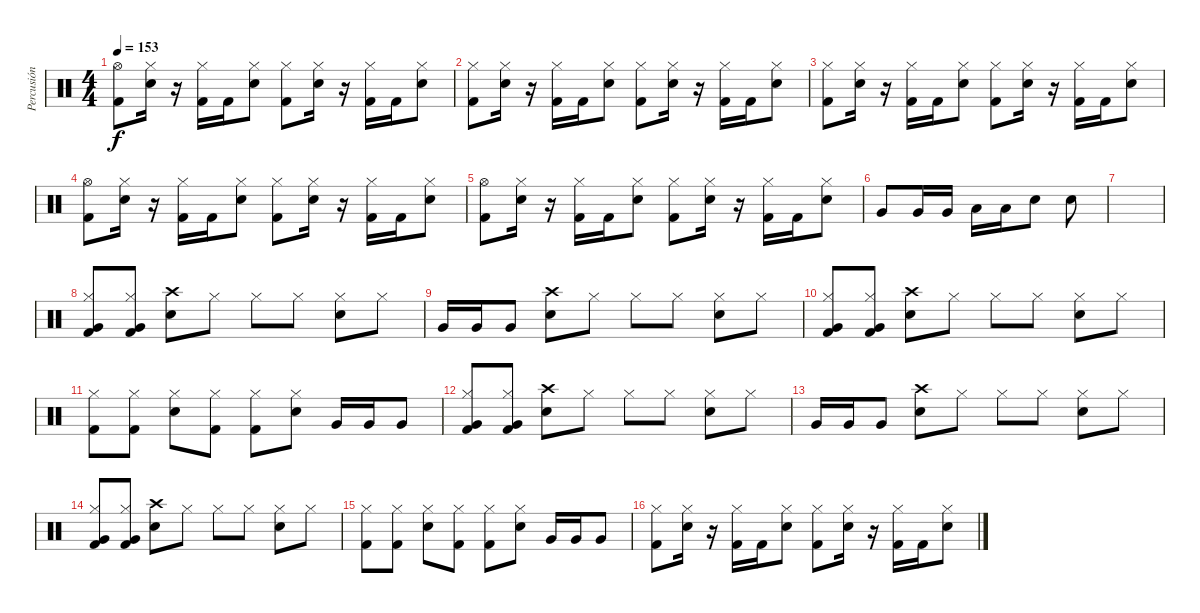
\track ("Percusión" "Percusión") {instrument percussion}
\staff {score}
\articulation defaults
\ts (4 4)
\tempo 153
\clef neutral
\ks c
("Hi-Hat (open)" "Kick (hit) 2").8{dy f} ("Hi-Hat (closed)" "Electric Snare (hit)").16 r.16 ("Hi-Hat (closed)" "Kick (hit) 2").16 "Kick (hit) 2".16 ("Hi-Hat (closed)" "Electric Snare (hit)").8 ("Hi-Hat (closed)" "Kick (hit) 2").8 ("Hi-Hat (closed)" "Electric Snare (hit)").16 r.16 ("Hi-Hat (closed)" "Kick (hit) 2").16 "Kick (hit) 2".16 ("Hi-Hat (closed)" "Electric Snare (hit)").8 |
("Hi-Hat (closed)" "Kick (hit) 2").8 ("Hi-Hat (closed)" "Electric Snare (hit)").16 r.16 ("Hi-Hat (closed)" "Kick (hit) 2").16 "Kick (hit) 2".16 ("Hi-Hat (closed)" "Electric Snare (hit)").8 ("Hi-Hat (closed)" "Kick (hit) 2").8 ("Hi-Hat (closed)" "Electric Snare (hit)").16 r.16 ("Hi-Hat (closed)" "Kick (hit) 2").16 "Kick (hit) 2".16 ("Hi-Hat (closed)" "Electric Snare (hit)").8 |
("Hi-Hat (closed)" "Kick (hit) 2").8 ("Hi-Hat (closed)" "Electric Snare (hit)").16 r.16 ("Hi-Hat (closed)" "Kick (hit) 2").16 "Kick (hit) 2".16 ("Hi-Hat (closed)" "Electric Snare (hit)").8 ("Hi-Hat (closed)" "Kick (hit) 2").8 ("Hi-Hat (closed)" "Electric Snare (hit)").16 r.16 ("Hi-Hat (closed)" "Kick (hit) 2").16 "Kick (hit) 2".16 ("Hi-Hat (closed)" "Electric Snare (hit)").8 |
("Hi-Hat (open)" "Kick (hit) 2").8 ("Hi-Hat (closed)" "Electric Snare (hit)").16 r.16 ("Hi-Hat (closed)" "Kick (hit) 2").16 "Kick (hit) 2".16 ("Hi-Hat (closed)" "Electric Snare (hit)").8 ("Hi-Hat (closed)" "Kick (hit) 2").8 ("Hi-Hat (closed)" "Electric Snare (hit)").16 r.16 ("Hi-Hat (closed)" "Kick (hit) 2").16 "Kick (hit) 2".16 ("Hi-Hat (closed)" "Electric Snare (hit)").8 |
("Hi-Hat (open)" "Kick (hit) 2").8 ("Hi-Hat (closed)" "Electric Snare (hit)").16 r.16 ("Hi-Hat (closed)" "Kick (hit) 2").16 "Kick (hit) 2".16 ("Hi-Hat (closed)" "Electric Snare (hit)").8 ("Hi-Hat (closed)" "Kick (hit) 2").8 ("Hi-Hat (closed)" "Electric Snare (hit)").16 r.16 ("Hi-Hat (closed)" "Kick (hit) 2").16 "Kick (hit) 2".16 ("Hi-Hat (closed)" "Electric Snare (hit)").8 |
"Very Low Tom (hit)".8 "Very Low Tom (hit)".16 "Very Low Tom (hit)".16 "Low Tom (hit)".16 "Low Tom (hit)".16 "Electric Snare (hit)".8 "Electric Snare (hit)".8 |
|
("Hi-Hat (closed)" "Very Low Tom (hit)" "Kick (hit) 2").8 ("Hi-Hat (closed)" "Very Low Tom (hit)" "Kick (hit) 2").8 ("Crash high (hit)" "Electric Snare (hit)").8 "Hi-Hat (closed)".8 "Hi-Hat (closed)".8 "Hi-Hat (closed)".8 ("Hi-Hat (closed)" "Electric Snare (hit)").8 "Hi-Hat (closed)".8 |
"Very Low Tom (hit)".16 "Very Low Tom (hit)".16 "Very Low Tom (hit)".8 ("Crash high (hit)" "Electric Snare (hit)").8 "Hi-Hat (closed)".8 "Hi-Hat (closed)".8 "Hi-Hat (closed)".8 ("Hi-Hat (closed)" "Electric Snare (hit)").8 "Hi-Hat (closed)".8 |
("Hi-Hat (closed)" "Very Low Tom (hit)" "Kick (hit) 2").8 ("Hi-Hat (closed)" "Very Low Tom (hit)" "Kick (hit) 2").8 ("Crash high (hit)" "Electric Snare (hit)").8 "Hi-Hat (closed)".8 "Hi-Hat (closed)".8 "Hi-Hat (closed)".8 ("Hi-Hat (closed)" "Electric Snare (hit)").8 "Hi-Hat (closed)".8 |
("Hi-Hat (closed)" "Kick (hit) 2").8 ("Hi-Hat (closed)" "Kick (hit) 2").8 ("Hi-Hat (closed)" "Electric Snare (hit)").8 ("Hi-Hat (closed)" "Kick (hit) 2").8 ("Hi-Hat (closed)" "Kick (hit) 2").8 ("Hi-Hat (closed)" "Electric Snare (hit)").8 "Very Low Tom (hit)".16 "Very Low Tom (hit)".16 "Very Low Tom (hit)".8 |
("Hi-Hat (closed)" "Very Low Tom (hit)" "Kick (hit) 2").8 ("Hi-Hat (closed)" "Very Low Tom (hit)" "Kick (hit) 2").8 ("Crash high (hit)" "Electric Snare (hit)").8 "Hi-Hat (closed)".8 "Hi-Hat (closed)".8 "Hi-Hat (closed)".8 ("Hi-Hat (closed)" "Electric Snare (hit)").8 "Hi-Hat (closed)".8 |
"Very Low Tom (hit)".16 "Very Low Tom (hit)".16 "Very Low Tom (hit)".8 ("Crash high (hit)" "Electric Snare (hit)").8 "Hi-Hat (closed)".8 "Hi-Hat (closed)".8 "Hi-Hat (closed)".8 ("Hi-Hat (closed)" "Electric Snare (hit)").8 "Hi-Hat (closed)".8 |
("Hi-Hat (closed)" "Very Low Tom (hit)" "Kick (hit) 2").8 ("Hi-Hat (closed)" "Very Low Tom (hit)" "Kick (hit) 2").8 ("Crash high (hit)" "Electric Snare (hit)").8 "Hi-Hat (closed)".8 "Hi-Hat (closed)".8 "Hi-Hat (closed)".8 ("Hi-Hat (closed)" "Electric Snare (hit)").8 "Hi-Hat (closed)".8 |
("Hi-Hat (closed)" "Kick (hit) 2").8 ("Hi-Hat (closed)" "Kick (hit) 2").8 ("Hi-Hat (closed)" "Electric Snare (hit)").8 ("Hi-Hat (closed)" "Kick (hit) 2").8 ("Hi-Hat (closed)" "Kick (hit) 2").8 ("Hi-Hat (closed)" "Electric Snare (hit)").8 "Very Low Tom (hit)".16 "Very Low Tom (hit)".16 "Very Low Tom (hit)".8 |
("Hi-Hat (closed)" "Kick (hit) 2").8 ("Hi-Hat (closed)" "Electric Snare (hit)").16 r.16 ("Hi-Hat (closed)" "Kick (hit) 2").16 "Kick (hit) 2".16 ("Hi-Hat (closed)" "Electric Snare (hit)").8 ("Hi-Hat (closed)" "Kick (hit) 2").8 ("Hi-Hat (closed)" "Electric Snare (hit)").16 r.16 ("Hi-Hat (closed)" "Kick (hit) 2").16 "Kick (hit) 2".16 ("Hi-Hat (closed)" "Electric Snare (hit)").8
